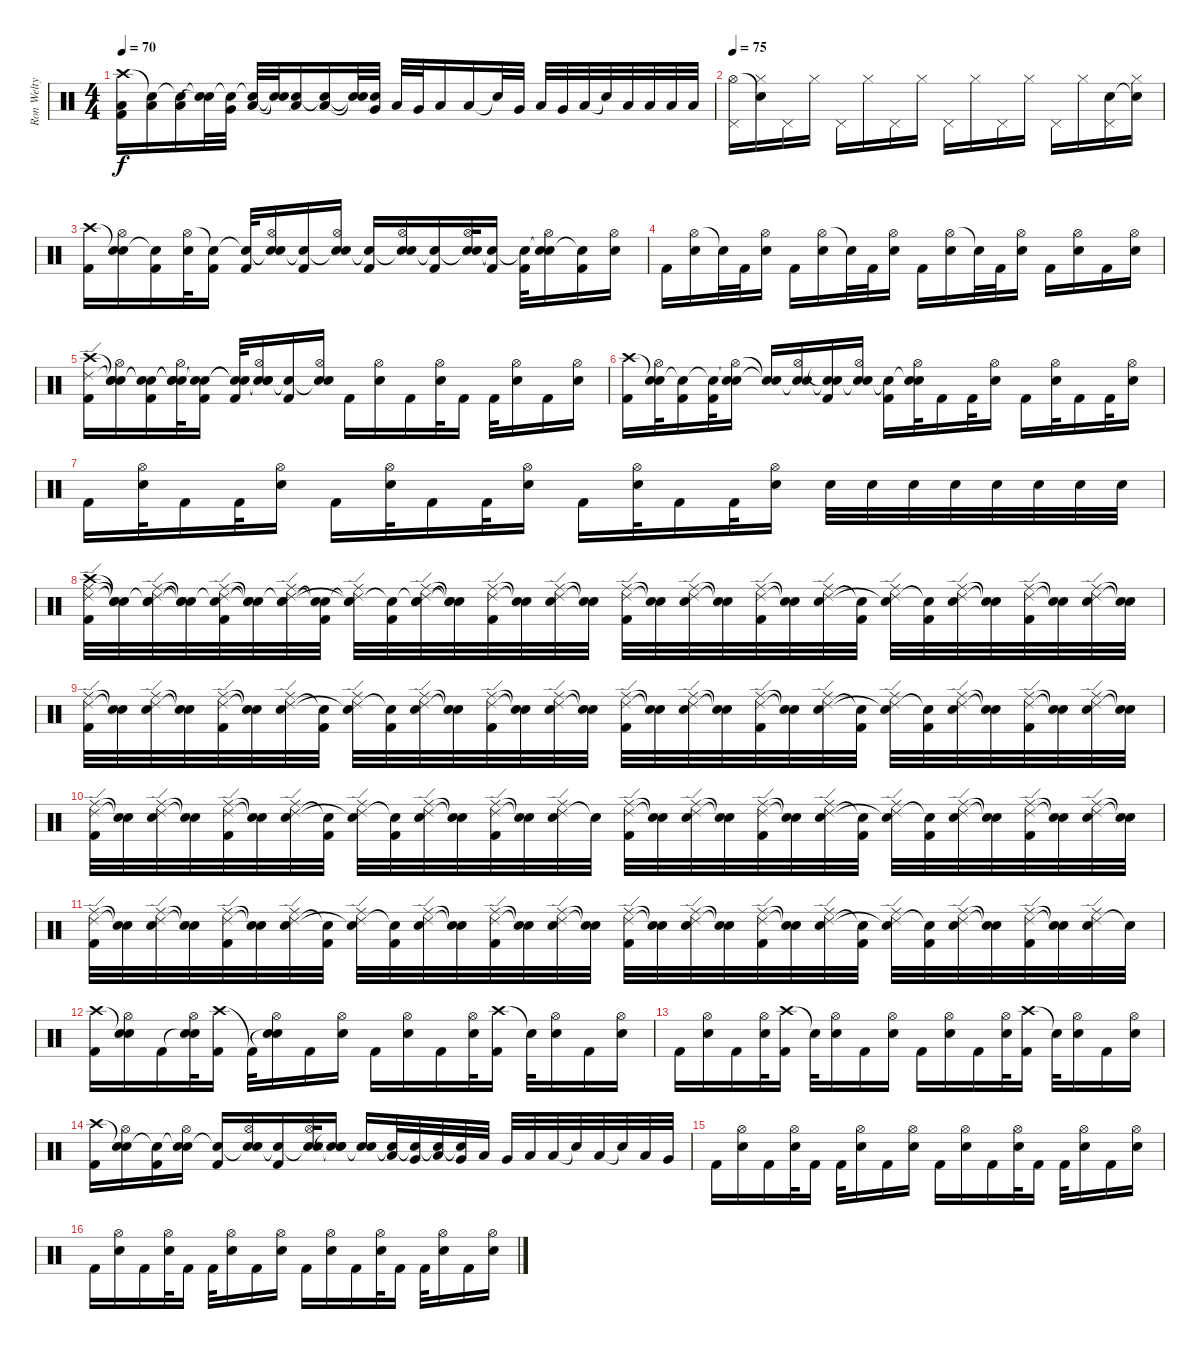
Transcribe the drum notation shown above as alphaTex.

\track ("Ron Welty" "Ron Welty") {instrument percussion}
\staff {score}
\articulation defaults
\ts (4 4)
\tempo 70
\clef neutral
\ks c
("Crash high (hit)" "Low Tom (hit)" "Kick (hit) 2").16{dy f} ("Snare (hit)"{t} "Low Tom (hit)").16 ("Snare (hit)"{t} "Low Tom (hit)").16 ("Snare (hit)"{t} "Snare (hit)"{t}).32 ("Snare (hit)"{t} "Very Low Tom (hit)").32 ("Snare (hit)"{t} "Low Tom (hit)").32 ("Snare (hit)"{t} "Snare (hit)"{t}).32 ("Snare (hit)"{t} "Low Tom (hit)").16 ("Snare (hit)"{t} "Low Tom (hit)").16 ("Snare (hit)"{t} "Snare (hit)"{t}).32 ("Snare (hit)"{t} "Very Low Tom (hit)").32 "Low Tom (hit)".32 "Very Low Tom (hit)".32 "Low Tom (hit)".16 "Low Tom (hit)".16 "Snare (hit)"{t}.32 "Very Low Tom (hit)".32 "Low Tom (hit)".32 "Very Low Tom (hit)".32 "Low Tom (hit)".32 "Snare (hit)"{t}.32 "Low Tom (hit)".32 "Low Tom (hit)".32 "Low Tom (hit)".32 "Low Tom (hit)".32 |
\tempo 75
("Pedal Hi-Hat (hit)" "Hi-Hat (open)").16 ("Hi-Hat (closed)" "Snare (hit)"{t}).16 "Pedal Hi-Hat (hit)".16 "Hi-Hat (closed)".16 "Pedal Hi-Hat (hit)".16 "Hi-Hat (closed)".16 "Pedal Hi-Hat (hit)".16 "Hi-Hat (closed)".16 "Pedal Hi-Hat (hit)".16 "Hi-Hat (closed)".16 "Pedal Hi-Hat (hit)".16 "Hi-Hat (closed)".16 "Pedal Hi-Hat (hit)".16 "Hi-Hat (closed)".16 ("Pedal Hi-Hat (hit)" "Electric Snare (hit)").16 ("Hi-Hat (closed)" "Snare (hit)"{t}).16 |
("Crash high (hit)" "Kick (hit) 2").16 ("Snare (hit)"{t} "Hi-Hat (open)" "Electric Snare (hit)").16 ("Snare (hit)"{t} "Kick (hit) 2").16 ("Hi-Hat (open)" "Electric Snare (hit)").32 ("Snare (hit)"{t} "Kick (hit) 2").16 ("Snare (hit)"{t} "Kick (hit) 2").32 ("Snare (hit)"{t} "Hi-Hat (open)" "Electric Snare (hit)").16 ("Snare (hit)"{t} "Kick (hit) 2").16 ("Snare (hit)"{t} "Hi-Hat (open)" "Electric Snare (hit)").16 ("Snare (hit)"{t} "Kick (hit) 2").16 ("Snare (hit)"{t} "Hi-Hat (open)" "Electric Snare (hit)").16 ("Snare (hit)"{t} "Kick (hit) 2").16 ("Snare (hit)"{t} "Hi-Hat (open)" "Electric Snare (hit)").32 ("Snare (hit)"{t} "Kick (hit) 2").16 ("Snare (hit)"{t} "Kick (hit) 2").32 ("Snare (hit)"{t} "Hi-Hat (open)" "Electric Snare (hit)").16 ("Snare (hit)"{t} "Kick (hit) 2").16 ("Hi-Hat (open)" "Electric Snare (hit)").16 |
"Kick (hit) 2".16 ("Hi-Hat (open)" "Electric Snare (hit)").16 "Snare (hit)"{t}.32 "Kick (hit) 2".32 ("Hi-Hat (open)" "Electric Snare (hit)").16 "Kick (hit) 2".16 ("Hi-Hat (open)" "Electric Snare (hit)").16 "Snare (hit)"{t}.32 "Kick (hit) 2".32 ("Hi-Hat (open)" "Electric Snare (hit)").16 "Kick (hit) 2".16 ("Hi-Hat (open)" "Electric Snare (hit)").16 "Snare (hit)"{t}.32 "Kick (hit) 2".32 ("Hi-Hat (open)" "Electric Snare (hit)").16 "Kick (hit) 2".16 ("Hi-Hat (open)" "Electric Snare (hit)").16 "Kick (hit) 2".16 ("Hi-Hat (open)" "Electric Snare (hit)").16 |
("Crash high (hit)" "Ride (edge) 2" "Kick (hit) 2").16 ("Snare (hit)"{t} "Snare (hit)"{t} "Hi-Hat (open)" "Electric Snare (hit)").16 ("Snare (hit)"{t} "Snare (hit)"{t} "Kick (hit) 2").16 ("Snare (hit)"{t} "Snare (hit)"{t} "Hi-Hat (open)" "Electric Snare (hit)").32 ("Snare (hit)"{t} "Snare (hit)"{t} "Kick (hit) 2").16 ("Snare (hit)"{t} "Snare (hit)"{t} "Kick (hit) 2").32 ("Snare (hit)"{t} "Snare (hit)"{t} "Hi-Hat (open)" "Electric Snare (hit)").16 ("Snare (hit)"{t} "Kick (hit) 2").16 ("Snare (hit)"{t} "Hi-Hat (open)" "Electric Snare (hit)").16 "Kick (hit) 2".16 ("Hi-Hat (open)" "Electric Snare (hit)").16 "Kick (hit) 2".16 ("Hi-Hat (open)" "Electric Snare (hit)").32 "Kick (hit) 2".16 "Kick (hit) 2".32 ("Hi-Hat (open)" "Electric Snare (hit)").16 "Kick (hit) 2".16 ("Hi-Hat (open)" "Electric Snare (hit)").16 |
("Crash high (hit)" "Kick (hit) 2").16 ("Snare (hit)"{t} "Hi-Hat (open)" "Electric Snare (hit)").32 ("Snare (hit)"{t} "Kick (hit) 2").16 ("Snare (hit)"{t} "Kick (hit) 2").32 ("Snare (hit)"{t} "Hi-Hat (open)" "Electric Snare (hit)").16 ("Snare (hit)"{t} "Snare (hit)"{t}).16 ("Snare (hit)"{t} "Hi-Hat (open)" "Electric Snare (hit)").16 ("Snare (hit)"{t} "Snare (hit)"{t} "Kick (hit) 2").16 ("Snare (hit)"{t} "Hi-Hat (open)" "Electric Snare (hit)").16 ("Snare (hit)"{t} "Kick (hit) 2").16 ("Snare (hit)"{t} "Hi-Hat (open)" "Electric Snare (hit)").32 "Kick (hit) 2".16 "Kick (hit) 2".32 ("Hi-Hat (open)" "Electric Snare (hit)").16 "Kick (hit) 2".16 ("Hi-Hat (open)" "Electric Snare (hit)").32 "Kick (hit) 2".16 "Kick (hit) 2".32 ("Hi-Hat (open)" "Electric Snare (hit)").16 |
"Kick (hit) 2".16 ("Hi-Hat (open)" "Electric Snare (hit)").32 "Kick (hit) 2".16 "Kick (hit) 2".32 ("Hi-Hat (open)" "Electric Snare (hit)").16 "Kick (hit) 2".16 ("Hi-Hat (open)" "Electric Snare (hit)").32 "Kick (hit) 2".16 "Kick (hit) 2".32 ("Hi-Hat (open)" "Electric Snare (hit)").16 "Kick (hit) 2".16 ("Hi-Hat (open)" "Electric Snare (hit)").32 "Kick (hit) 2".16 "Kick (hit) 2".32 ("Hi-Hat (open)" "Electric Snare (hit)").16 "Electric Snare (hit)".32 "Electric Snare (hit)".32 "Electric Snare (hit)".32 "Electric Snare (hit)".32 "Electric Snare (hit)".32 "Electric Snare (hit)".32 "Electric Snare (hit)".32 "Electric Snare (hit)".32 |
("Crash high (hit)" "Ride (edge) 2" "Ride (middle)" "Kick (hit) 2").32 ("Snare (hit)"{t} "Snare (hit)"{t} "Snare (hit)"{t}).32 ("Snare (hit)"{t} "Ride (edge) 2" "Ride (middle)" "Electric Snare (hit)").32 ("Snare (hit)"{t} "Snare (hit)"{t} "Snare (hit)"{t}).32 ("Snare (hit)"{t} "Ride (edge) 2" "Ride (middle)" "Kick (hit) 2").32 ("Snare (hit)"{t} "Snare (hit)"{t} "Snare (hit)"{t}).32 ("Snare (hit)"{t} "Ride (edge) 2" "Ride (middle)" "Electric Snare (hit)").32 ("Snare (hit)"{t} "Snare (hit)"{t} "Kick (hit) 2").32 ("Snare (hit)"{t} "Ride (edge) 2" "Ride (middle)" "Snare (hit)"{t}).32 ("Snare (hit)"{t} "Kick (hit) 2").32 ("Snare (hit)"{t} "Ride (edge) 2" "Ride (middle)" "Electric Snare (hit)").32 ("Snare (hit)"{t} "Snare (hit)"{t} "Snare (hit)"{t}).32 ("Ride (edge) 2" "Ride (middle)" "Kick (hit) 2").32 ("Snare (hit)"{t} "Snare (hit)"{t}).32 ("Ride (edge) 2" "Ride (middle)" "Electric Snare (hit)").32 ("Snare (hit)"{t} "Snare (hit)"{t}).32 ("Ride (edge) 2" "Ride (middle)" "Kick (hit) 2").32 ("Snare (hit)"{t} "Snare (hit)"{t}).32 ("Ride (edge) 2" "Ride (middle)" "Electric Snare (hit)").32 ("Snare (hit)"{t} "Snare (hit)"{t}).32 ("Ride (edge) 2" "Ride (middle)" "Kick (hit) 2").32 ("Snare (hit)"{t} "Snare (hit)"{t}).32 ("Ride (edge) 2" "Ride (middle)" "Electric Snare (hit)").32 ("Snare (hit)"{t} "Kick (hit) 2").32 ("Ride (edge) 2" "Ride (middle)" "Snare (hit)"{t}).32 ("Snare (hit)"{t} "Kick (hit) 2").32 ("Ride (edge) 2" "Ride (middle)" "Electric Snare (hit)").32 ("Snare (hit)"{t} "Snare (hit)"{t}).32 ("Ride (edge) 2" "Ride (middle)" "Kick (hit) 2").32 ("Snare (hit)"{t} "Snare (hit)"{t}).32 ("Ride (edge) 2" "Ride (middle)" "Electric Snare (hit)").32 ("Snare (hit)"{t} "Snare (hit)"{t}).32 |
("Ride (edge) 2" "Ride (middle)" "Kick (hit) 2").32 ("Snare (hit)"{t} "Snare (hit)"{t}).32 ("Ride (edge) 2" "Ride (middle)" "Electric Snare (hit)").32 ("Snare (hit)"{t} "Snare (hit)"{t}).32 ("Ride (edge) 2" "Ride (middle)" "Kick (hit) 2").32 ("Snare (hit)"{t} "Snare (hit)"{t}).32 ("Ride (edge) 2" "Ride (middle)" "Electric Snare (hit)").32 ("Snare (hit)"{t} "Kick (hit) 2").32 ("Ride (edge) 2" "Ride (middle)" "Snare (hit)"{t}).32 ("Snare (hit)"{t} "Kick (hit) 2").32 ("Ride (edge) 2" "Ride (middle)" "Electric Snare (hit)").32 ("Snare (hit)"{t} "Snare (hit)"{t}).32 ("Ride (edge) 2" "Ride (middle)" "Kick (hit) 2").32 ("Snare (hit)"{t} "Snare (hit)"{t}).32 ("Ride (edge) 2" "Ride (middle)" "Electric Snare (hit)").32 ("Snare (hit)"{t} "Snare (hit)"{t}).32 ("Ride (edge) 2" "Ride (middle)" "Kick (hit) 2").32 ("Snare (hit)"{t} "Snare (hit)"{t}).32 ("Ride (edge) 2" "Ride (middle)" "Electric Snare (hit)").32 ("Snare (hit)"{t} "Snare (hit)"{t}).32 ("Ride (edge) 2" "Ride (middle)" "Kick (hit) 2").32 ("Snare (hit)"{t} "Snare (hit)"{t}).32 ("Ride (edge) 2" "Ride (middle)" "Electric Snare (hit)").32 ("Snare (hit)"{t} "Kick (hit) 2").32 ("Ride (edge) 2" "Ride (middle)" "Snare (hit)"{t}).32 ("Snare (hit)"{t} "Kick (hit) 2").32 ("Ride (edge) 2" "Ride (middle)" "Electric Snare (hit)").32 ("Snare (hit)"{t} "Snare (hit)"{t}).32 ("Ride (edge) 2" "Ride (middle)" "Kick (hit) 2").32 ("Snare (hit)"{t} "Snare (hit)"{t}).32 ("Ride (edge) 2" "Ride (middle)" "Electric Snare (hit)").32 ("Snare (hit)"{t} "Snare (hit)"{t}).32 |
("Ride (edge) 2" "Ride (middle)" "Kick (hit) 2").32 ("Snare (hit)"{t} "Snare (hit)"{t}).32 ("Ride (edge) 2" "Ride (middle)" "Electric Snare (hit)").32 ("Snare (hit)"{t} "Snare (hit)"{t}).32 ("Ride (edge) 2" "Ride (middle)" "Kick (hit) 2").32 ("Snare (hit)"{t} "Snare (hit)"{t}).32 ("Ride (edge) 2" "Ride (middle)" "Electric Snare (hit)").32 ("Snare (hit)"{t} "Kick (hit) 2").32 ("Ride (edge) 2" "Ride (middle)" "Snare (hit)"{t}).32 ("Snare (hit)"{t} "Kick (hit) 2").32 ("Ride (edge) 2" "Ride (middle)" "Electric Snare (hit)").32 ("Snare (hit)"{t} "Snare (hit)"{t}).32 ("Ride (edge) 2" "Ride (middle)" "Kick (hit) 2").32 ("Snare (hit)"{t} "Snare (hit)"{t}).32 ("Ride (edge) 2" "Ride (middle)" "Electric Snare (hit)").32 "Snare (hit)"{t}.32 ("Ride (edge) 2" "Ride (middle)" "Kick (hit) 2").32 ("Snare (hit)"{t} "Snare (hit)"{t}).32 ("Ride (edge) 2" "Ride (middle)" "Electric Snare (hit)").32 ("Snare (hit)"{t} "Snare (hit)"{t}).32 ("Ride (edge) 2" "Ride (middle)" "Kick (hit) 2").32 ("Snare (hit)"{t} "Snare (hit)"{t}).32 ("Ride (edge) 2" "Ride (middle)" "Electric Snare (hit)").32 ("Snare (hit)"{t} "Kick (hit) 2").32 ("Ride (edge) 2" "Ride (middle)" "Snare (hit)"{t}).32 ("Snare (hit)"{t} "Kick (hit) 2").32 ("Ride (edge) 2" "Ride (middle)" "Electric Snare (hit)").32 ("Snare (hit)"{t} "Snare (hit)"{t}).32 ("Ride (edge) 2" "Ride (middle)" "Kick (hit) 2").32 ("Snare (hit)"{t} "Snare (hit)"{t}).32 ("Ride (edge) 2" "Ride (middle)" "Electric Snare (hit)").32 ("Snare (hit)"{t} "Snare (hit)"{t}).32 |
("Ride (edge) 2" "Ride (middle)" "Kick (hit) 2").32 ("Snare (hit)"{t} "Snare (hit)"{t}).32 ("Ride (edge) 2" "Ride (middle)" "Electric Snare (hit)").32 ("Snare (hit)"{t} "Snare (hit)"{t}).32 ("Ride (edge) 2" "Ride (middle)" "Kick (hit) 2").32 ("Snare (hit)"{t} "Snare (hit)"{t}).32 ("Ride (edge) 2" "Ride (middle)" "Electric Snare (hit)").32 ("Snare (hit)"{t} "Kick (hit) 2").32 ("Ride (edge) 2" "Ride (middle)" "Snare (hit)"{t}).32 ("Snare (hit)"{t} "Kick (hit) 2").32 ("Ride (edge) 2" "Ride (middle)" "Electric Snare (hit)").32 ("Snare (hit)"{t} "Snare (hit)"{t}).32 ("Ride (edge) 2" "Ride (middle)" "Kick (hit) 2").32 ("Snare (hit)"{t} "Snare (hit)"{t}).32 ("Ride (edge) 2" "Ride (middle)" "Electric Snare (hit)").32 ("Snare (hit)"{t} "Snare (hit)"{t}).32 ("Ride (edge) 2" "Ride (middle)" "Kick (hit) 2").32 ("Snare (hit)"{t} "Snare (hit)"{t}).32 ("Ride (edge) 2" "Ride (middle)" "Electric Snare (hit)").32 ("Snare (hit)"{t} "Snare (hit)"{t}).32 ("Ride (edge) 2" "Ride (middle)" "Kick (hit) 2").32 ("Snare (hit)"{t} "Snare (hit)"{t}).32 ("Ride (edge) 2" "Ride (middle)" "Electric Snare (hit)").32 ("Snare (hit)"{t} "Kick (hit) 2").32 ("Ride (edge) 2" "Ride (middle)" "Snare (hit)"{t}).32 ("Snare (hit)"{t} "Kick (hit) 2").32 ("Ride (edge) 2" "Ride (middle)" "Electric Snare (hit)").32 ("Snare (hit)"{t} "Snare (hit)"{t}).32 ("Ride (edge) 2" "Ride (middle)" "Kick (hit) 2").32 ("Snare (hit)"{t} "Snare (hit)"{t}).32 ("Ride (edge) 2" "Ride (middle)" "Electric Snare (hit)").32 "Snare (hit)"{t}.32 |
("Crash high (hit)" "Kick (hit) 2").16 ("Snare (hit)"{t} "Hi-Hat (open)" "Electric Snare (hit)").16 "Kick (hit) 2".16 ("Snare (hit)"{t} "Hi-Hat (open)" "Electric Snare (hit)").32 ("Crash high (hit)" "Kick (hit) 2").16 "Kick (hit) 2"{t}.32 ("Snare (hit)"{t} "Hi-Hat (open)" "Electric Snare (hit)").16 "Kick (hit) 2".16 ("Hi-Hat (open)" "Electric Snare (hit)").16 "Kick (hit) 2".16 ("Hi-Hat (open)" "Electric Snare (hit)").16 "Kick (hit) 2".16 ("Hi-Hat (open)" "Electric Snare (hit)").32 ("Crash high (hit)" "Kick (hit) 2").16 "Snare (hit)"{t}.32 ("Hi-Hat (open)" "Electric Snare (hit)").16 "Kick (hit) 2".16 ("Hi-Hat (open)" "Electric Snare (hit)").16 |
"Kick (hit) 2".16 ("Hi-Hat (open)" "Electric Snare (hit)").16 "Kick (hit) 2".16 ("Hi-Hat (open)" "Electric Snare (hit)").32 ("Crash high (hit)" "Kick (hit) 2").16 "Snare (hit)"{t}.32 ("Hi-Hat (open)" "Electric Snare (hit)").16 "Kick (hit) 2".16 ("Hi-Hat (open)" "Electric Snare (hit)").16 "Kick (hit) 2".16 ("Hi-Hat (open)" "Electric Snare (hit)").16 "Kick (hit) 2".16 ("Hi-Hat (open)" "Electric Snare (hit)").32 ("Crash high (hit)" "Kick (hit) 2").16 "Snare (hit)"{t}.32 ("Hi-Hat (open)" "Electric Snare (hit)").16 "Kick (hit) 2".16 ("Hi-Hat (open)" "Electric Snare (hit)").16 |
("Crash high (hit)" "Kick (hit) 2").16 ("Snare (hit)"{t} "Hi-Hat (open)" "Electric Snare (hit)").16 ("Snare (hit)"{t} "Kick (hit) 2").16 ("Snare (hit)"{t} "Hi-Hat (open)" "Electric Snare (hit)").16 ("Snare (hit)"{t} "Kick (hit) 2").16 ("Snare (hit)"{t} "Hi-Hat (open)" "Electric Snare (hit)").16 ("Snare (hit)"{t} "Kick (hit) 2").16 ("Snare (hit)"{t} "Hi-Hat (open)" "Electric Snare (hit)").32 ("Snare (hit)"{t} "Snare (hit)"{t} "Electric Snare (hit)").16 ("Snare (hit)"{t} "Electric Snare (hit)").16 ("Snare (hit)"{t} "Low Tom (hit)").32 ("Snare (hit)"{t} "Very Low Tom (hit)").32 ("Snare (hit)"{t} "Low Floor Tom (hit)").32 ("Snare (hit)"{t} "Very Low Tom (hit)").32 "Low Tom (hit)".32 "Very Low Tom (hit)".32 "Low Floor Tom (hit)".32 "Low Floor Tom (hit)".32 "Snare (hit)"{t}.32 "Low Tom (hit)".32 "Snare (hit)"{t}.32 "Low Tom (hit)".32 "Very Low Tom (hit)".32 |
"Kick (hit) 2".16 ("Hi-Hat (open)" "Electric Snare (hit)").16 "Kick (hit) 2".16 ("Hi-Hat (open)" "Electric Snare (hit)").32 "Kick (hit) 2".16 "Kick (hit) 2".32 ("Hi-Hat (open)" "Electric Snare (hit)").16 "Kick (hit) 2".16 ("Hi-Hat (open)" "Electric Snare (hit)").16 "Kick (hit) 2".16 ("Hi-Hat (open)" "Electric Snare (hit)").16 "Kick (hit) 2".16 ("Hi-Hat (open)" "Electric Snare (hit)").32 "Kick (hit) 2".16 "Kick (hit) 2".32 ("Hi-Hat (open)" "Electric Snare (hit)").16 "Kick (hit) 2".16 ("Hi-Hat (open)" "Electric Snare (hit)").16 |
"Kick (hit) 2".16 ("Hi-Hat (open)" "Electric Snare (hit)").16 "Kick (hit) 2".16 ("Hi-Hat (open)" "Electric Snare (hit)").32 "Kick (hit) 2".16 "Kick (hit) 2".32 ("Hi-Hat (open)" "Electric Snare (hit)").16 "Kick (hit) 2".16 ("Hi-Hat (open)" "Electric Snare (hit)").16 "Kick (hit) 2".16 ("Hi-Hat (open)" "Electric Snare (hit)").16 "Kick (hit) 2".16 ("Hi-Hat (open)" "Electric Snare (hit)").32 "Kick (hit) 2".16 "Kick (hit) 2".32 ("Hi-Hat (open)" "Electric Snare (hit)").16 "Kick (hit) 2".16 ("Hi-Hat (open)" "Electric Snare (hit)").16
